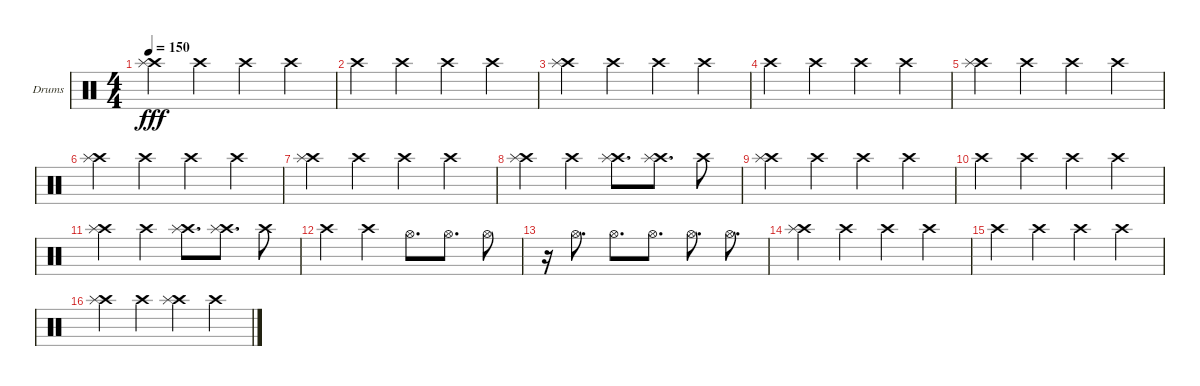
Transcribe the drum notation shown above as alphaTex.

\defaultSystemsLayout 4
\bracketExtendMode groupsimilarinstruments
\firstSystemTrackNameOrientation horizontal
\otherSystemsTrackNameOrientation horizontal
\track ("Helders" "Drums") {instrument percussion}
\staff {score}
\articulation defaults
\ts (4 4)
\tempo 150
\clef neutral
\ks c
("Crash high (hit)" "Splash (hit)").4{dy fff} "Crash high (hit)".4 "Crash high (hit)".4 "Crash high (hit)".4 |
"Crash high (hit)".4 "Crash high (hit)".4 "Crash high (hit)".4 "Crash high (hit)".4 |
("Crash high (hit)" "Splash (hit)").4 "Crash high (hit)".4 "Crash high (hit)".4 "Crash high (hit)".4 |
"Crash high (hit)".4 "Crash high (hit)".4 "Crash high (hit)".4 "Crash high (hit)".4 |
("Crash high (hit)" "Splash (hit)").4 "Crash high (hit)".4 "Crash high (hit)".4 "Crash high (hit)".4 |
("Crash high (hit)" "Splash (hit)").4 "Crash high (hit)".4 "Crash high (hit)".4 "Crash high (hit)".4 |
("Crash high (hit)" "Splash (hit)").4 "Crash high (hit)".4 "Crash high (hit)".4 "Crash high (hit)".4 |
("Crash high (hit)" "Splash (hit)").4 "Crash high (hit)".4 ("Crash high (hit)" "Splash (hit)").8{d} ("Crash high (hit)" "Splash (hit)").8{d} "Crash high (hit)".8 |
("Crash high (hit)" "Splash (hit)").4 "Crash high (hit)".4 "Crash high (hit)".4 "Crash high (hit)".4 |
"Crash high (hit)".4 "Crash high (hit)".4 "Crash high (hit)".4 "Crash high (hit)".4 |
("Crash high (hit)" "Splash (hit)").4 "Crash high (hit)".4 ("Crash high (hit)" "Splash (hit)").8{d} ("Crash high (hit)" "Splash (hit)").8{d} "Crash high (hit)".8 |
"Crash high (hit)".4 "Crash high (hit)".4 "Hi-Hat (open)".8{d} "Hi-Hat (open)".8{d} "Hi-Hat (open)".8 |
r.16 "Hi-Hat (open)".8{d} "Hi-Hat (open)".8{d} "Hi-Hat (open)".8{d} "Hi-Hat (open)".8{d} "Hi-Hat (open)".8{d} |
("Crash high (hit)" "Splash (hit)").4 "Crash high (hit)".4 "Crash high (hit)".4 "Crash high (hit)".4 |
"Crash high (hit)".4 "Crash high (hit)".4 "Crash high (hit)".4 "Crash high (hit)".4 |
("Crash high (hit)" "Splash (hit)").4 "Crash high (hit)".4 ("Crash high (hit)" "Splash (hit)").4 "Crash high (hit)".4
